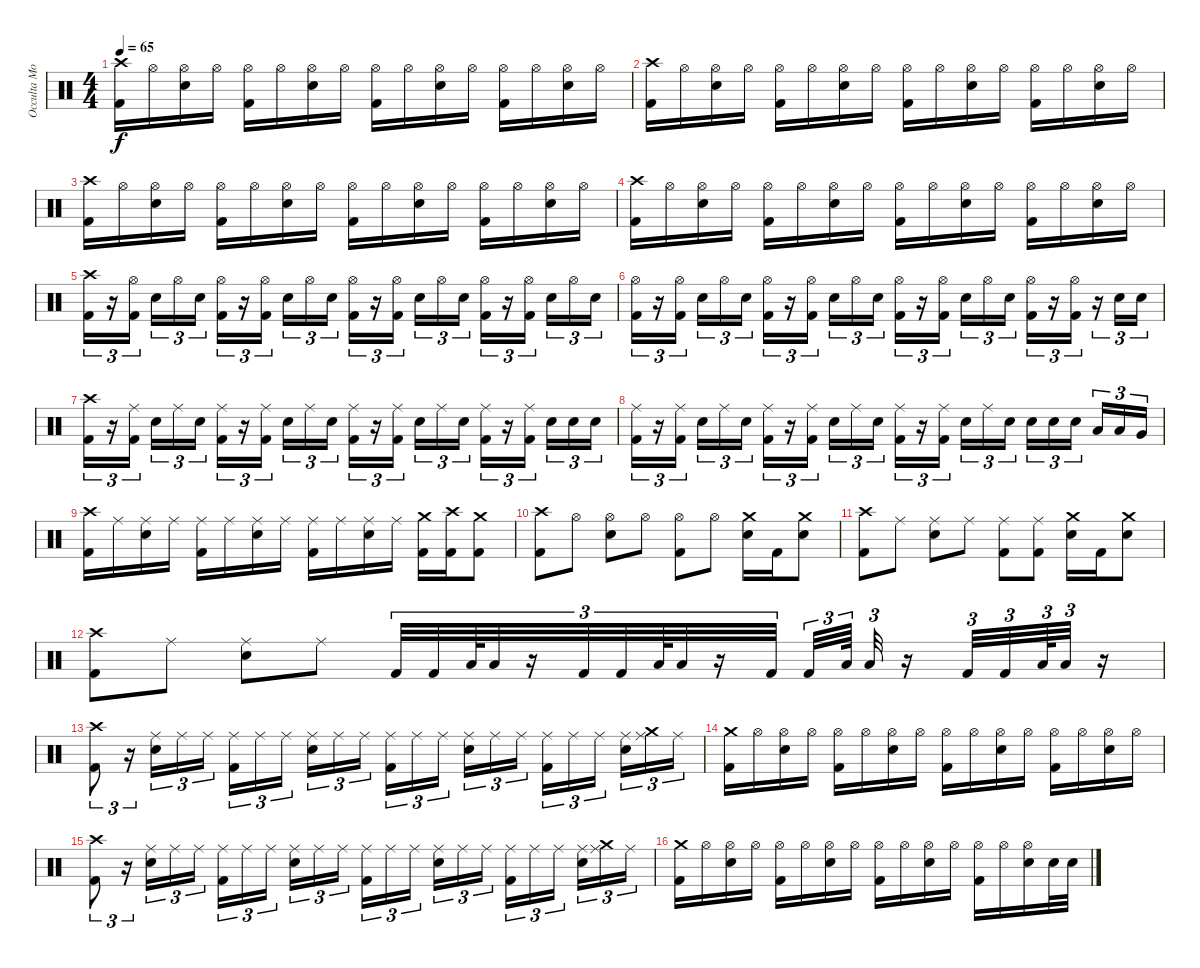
\track ("Occulta Mors" "Occulta Mo") {instrument percussion}
\staff {score}
\articulation defaults
\ts (4 4)
\tempo 65
\clef neutral
\ks c
("Crash high (hit)" "Kick (hit) 2").16{dy f} "Hi-Hat (open)".16 ("Hi-Hat (open)" "Snare (hit) 2").16 "Hi-Hat (open)".16 ("Hi-Hat (open)" "Kick (hit) 2").16 "Hi-Hat (open)".16 ("Hi-Hat (open)" "Snare (hit) 2").16 "Hi-Hat (open)".16 ("Hi-Hat (open)" "Kick (hit) 2").16 "Hi-Hat (open)".16 ("Hi-Hat (open)" "Snare (hit) 2").16 "Hi-Hat (open)".16 ("Hi-Hat (open)" "Kick (hit) 2").16 "Hi-Hat (open)".16 ("Hi-Hat (open)" "Snare (hit) 2").16 "Hi-Hat (open)".16 |
("Crash high (hit)" "Kick (hit) 2").16 "Hi-Hat (open)".16 ("Hi-Hat (open)" "Snare (hit) 2").16 "Hi-Hat (open)".16 ("Hi-Hat (open)" "Kick (hit) 2").16 "Hi-Hat (open)".16 ("Hi-Hat (open)" "Snare (hit) 2").16 "Hi-Hat (open)".16 ("Hi-Hat (open)" "Kick (hit) 2").16 "Hi-Hat (open)".16 ("Hi-Hat (open)" "Snare (hit) 2").16 "Hi-Hat (open)".16 ("Hi-Hat (open)" "Kick (hit) 2").16 "Hi-Hat (open)".16 ("Hi-Hat (open)" "Snare (hit) 2").16 "Hi-Hat (open)".16 |
("Crash high (hit)" "Kick (hit) 2").16 "Hi-Hat (open)".16 ("Hi-Hat (open)" "Snare (hit) 2").16 "Hi-Hat (open)".16 ("Hi-Hat (open)" "Kick (hit) 2").16 "Hi-Hat (open)".16 ("Hi-Hat (open)" "Snare (hit) 2").16 "Hi-Hat (open)".16 ("Hi-Hat (open)" "Kick (hit) 2").16 "Hi-Hat (open)".16 ("Hi-Hat (open)" "Snare (hit) 2").16 "Hi-Hat (open)".16 ("Hi-Hat (open)" "Kick (hit) 2").16 "Hi-Hat (open)".16 ("Hi-Hat (open)" "Snare (hit) 2").16 "Hi-Hat (open)".16 |
("Crash high (hit)" "Kick (hit) 2").16 "Hi-Hat (open)".16 ("Hi-Hat (open)" "Snare (hit) 2").16 "Hi-Hat (open)".16 ("Hi-Hat (open)" "Kick (hit) 2").16 "Hi-Hat (open)".16 ("Hi-Hat (open)" "Snare (hit) 2").16 "Hi-Hat (open)".16 ("Hi-Hat (open)" "Kick (hit) 2").16 "Hi-Hat (open)".16 ("Hi-Hat (open)" "Snare (hit) 2").16 "Hi-Hat (open)".16 ("Hi-Hat (open)" "Kick (hit) 2").16 "Hi-Hat (open)".16 ("Hi-Hat (open)" "Snare (hit) 2").16 "Hi-Hat (open)".16 |
("Crash high (hit)" "Kick (hit) 2").16{tu (3 2)} r.16{tu (3 2)} ("Hi-Hat (open)" "Kick (hit) 2").16{tu (3 2)} "Snare (hit) 2".16{tu (3 2)} "Hi-Hat (open)".16{tu (3 2)} "Snare (hit) 2".16{tu (3 2)} ("Hi-Hat (open)" "Kick (hit) 2").16{tu (3 2)} r.16{tu (3 2)} ("Hi-Hat (open)" "Kick (hit) 2").16{tu (3 2)} "Snare (hit) 2".16{tu (3 2)} "Hi-Hat (open)".16{tu (3 2)} "Snare (hit) 2".16{tu (3 2)} ("Hi-Hat (open)" "Kick (hit) 2").16{tu (3 2)} r.16{tu (3 2)} ("Hi-Hat (open)" "Kick (hit) 2").16{tu (3 2)} "Snare (hit) 2".16{tu (3 2)} "Hi-Hat (open)".16{tu (3 2)} "Snare (hit) 2".16{tu (3 2)} ("Hi-Hat (open)" "Kick (hit) 2").16{tu (3 2)} r.16{tu (3 2)} ("Hi-Hat (open)" "Kick (hit) 2").16{tu (3 2)} "Snare (hit) 2".16{tu (3 2)} "Hi-Hat (open)".16{tu (3 2)} "Snare (hit) 2".16{tu (3 2)} |
("Hi-Hat (open)" "Kick (hit) 2").16{tu (3 2)} r.16{tu (3 2)} ("Hi-Hat (open)" "Kick (hit) 2").16{tu (3 2)} "Snare (hit) 2".16{tu (3 2)} "Hi-Hat (open)".16{tu (3 2)} "Snare (hit) 2".16{tu (3 2)} ("Hi-Hat (open)" "Kick (hit) 2").16{tu (3 2)} r.16{tu (3 2)} ("Hi-Hat (open)" "Kick (hit) 2").16{tu (3 2)} "Snare (hit) 2".16{tu (3 2)} "Hi-Hat (open)".16{tu (3 2)} "Snare (hit) 2".16{tu (3 2)} ("Hi-Hat (open)" "Kick (hit) 2").16{tu (3 2)} r.16{tu (3 2)} ("Hi-Hat (open)" "Kick (hit) 2").16{tu (3 2)} "Snare (hit) 2".16{tu (3 2)} "Hi-Hat (open)".16{tu (3 2)} "Snare (hit) 2".16{tu (3 2)} ("Hi-Hat (open)" "Kick (hit) 2").16{tu (3 2)} r.16{tu (3 2)} ("Hi-Hat (open)" "Kick (hit) 2").16{tu (3 2)} r.16{tu (3 2)} "Snare (hit) 2".16{tu (3 2)} "Snare (hit) 2".16{tu (3 2)} |
("Crash high (hit)" "Kick (hit) 2").16{tu (3 2)} r.16{tu (3 2)} ("Ride (middle)" "Kick (hit) 2").16{tu (3 2)} "Snare (hit) 2".16{tu (3 2)} "Ride (middle)".16{tu (3 2)} "Snare (hit) 2".16{tu (3 2)} ("Ride (middle)" "Kick (hit) 2").16{tu (3 2)} r.16{tu (3 2)} ("Ride (middle)" "Kick (hit) 2").16{tu (3 2)} "Snare (hit) 2".16{tu (3 2)} "Ride (middle)".16{tu (3 2)} "Snare (hit) 2".16{tu (3 2)} ("Ride (middle)" "Kick (hit) 2").16{tu (3 2)} r.16{tu (3 2)} ("Ride (middle)" "Kick (hit) 2").16{tu (3 2)} "Snare (hit) 2".16{tu (3 2)} "Ride (middle)".16{tu (3 2)} "Snare (hit) 2".16{tu (3 2)} ("Ride (middle)" "Kick (hit) 2").16{tu (3 2)} r.16{tu (3 2)} ("Ride (middle)" "Kick (hit) 2").16{tu (3 2)} "Snare (hit) 2".16{tu (3 2)} "Snare (hit) 2".16{tu (3 2)} "Snare (hit) 2".16{tu (3 2)} |
("Ride (middle)" "Kick (hit) 2").16{tu (3 2)} r.16{tu (3 2)} ("Ride (middle)" "Kick (hit) 2").16{tu (3 2)} "Snare (hit) 2".16{tu (3 2)} "Ride (middle)".16{tu (3 2)} "Snare (hit) 2".16{tu (3 2)} ("Ride (middle)" "Kick (hit) 2").16{tu (3 2)} r.16{tu (3 2)} ("Ride (middle)" "Kick (hit) 2").16{tu (3 2)} "Snare (hit) 2".16{tu (3 2)} "Ride (middle)".16{tu (3 2)} "Snare (hit) 2".16{tu (3 2)} ("Ride (middle)" "Kick (hit) 2").16{tu (3 2)} r.16{tu (3 2)} ("Ride (middle)" "Kick (hit) 2").16{tu (3 2)} "Snare (hit) 2".16{tu (3 2)} "Ride (middle)".16{tu (3 2)} "Snare (hit) 2".16{tu (3 2)} "Snare (hit) 2".16{tu (3 2)} "Snare (hit) 2".16{tu (3 2)} "Snare (hit) 2".16{tu (3 2)} "Low Tom (hit)".16{tu (3 2)} "Low Tom (hit)".16{tu (3 2)} "Very Low Tom (hit)".16{tu (3 2)} |
("Crash high (hit)" "Kick (hit) 2").16 "Ride (middle)".16 ("Ride (middle)" "Snare (hit) 2").16 "Ride (middle)".16 ("Ride (middle)" "Kick (hit) 2").16 "Ride (middle)".16 ("Ride (middle)" "Snare (hit) 2").16 "Ride (middle)".16 ("Ride (middle)" "Kick (hit) 2").16 "Ride (middle)".16 ("Ride (middle)" "Snare (hit) 2").16 "Ride (middle)".16 ("Crash medium (hit)" "Kick (hit) 2").16 ("Crash high (hit)" "Kick (hit) 2").16 ("Crash medium (hit)" "Kick (hit) 2").8 |
("Crash high (hit)" "Kick (hit) 2").8 "Hi-Hat (open)".8 ("Hi-Hat (open)" "Snare (hit) 2").8 "Hi-Hat (open)".8 ("Hi-Hat (open)" "Kick (hit) 2").8 "Hi-Hat (open)".8 ("Crash medium (hit)" "Snare (hit) 2").16 "Kick (hit) 2".16 ("Crash medium (hit)" "Snare (hit) 2").8 |
("Crash high (hit)" "Kick (hit) 2").8 "Ride (middle)".8 ("Ride (middle)" "Snare (hit) 2").8 "Ride (middle)".8 ("Ride (middle)" "Kick (hit) 2").8 ("Ride (middle)" "Kick (hit) 2").8 ("Crash medium (hit)" "Snare (hit) 2").16 "Kick (hit) 2".16 ("Crash medium (hit)" "Snare (hit) 2").8 |
("Crash high (hit)" "Kick (hit) 2").8 "Ride (middle)".8 ("Ride (middle)" "Snare (hit) 2").8 "Ride (middle)".8 "Kick (hit) 2".32{tu (3 2)} "Kick (hit) 2".32{tu (3 2)} "Low Tom (hit)".64{tu (3 2)} "Low Tom (hit)".32{tu (3 2)} r.16{tu (3 2)} "Kick (hit) 2".32{tu (3 2)} "Kick (hit) 2".32{tu (3 2)} "Low Tom (hit)".64{tu (3 2)} "Low Tom (hit)".32{tu (3 2)} r.16{tu (3 2)} "Kick (hit) 2".32{tu (3 2)} "Kick (hit) 2".32{tu (3 2)} "Low Tom (hit)".64{tu (3 2)} "Low Tom (hit)".32{tu (3 2)} r.16 "Kick (hit) 2".32{tu (3 2)} "Kick (hit) 2".32{tu (3 2)} "Low Tom (hit)".64{tu (3 2)} "Low Tom (hit)".32{tu (3 2)} r.16 |
("Crash high (hit)" "Kick (hit) 2").8{tu (3 2)} r.16{tu (3 2)} ("Ride (middle)" "Snare (hit) 2").16{tu (3 2)} "Ride (middle)".16{tu (3 2)} "Ride (middle)".16{tu (3 2)} ("Ride (middle)" "Kick (hit) 2").16{tu (3 2)} "Ride (middle)".16{tu (3 2)} "Ride (middle)".16{tu (3 2)} ("Ride (middle)" "Snare (hit) 2").16{tu (3 2)} "Ride (middle)".16{tu (3 2)} "Ride (middle)".16{tu (3 2)} ("Ride (middle)" "Kick (hit) 2").16{tu (3 2)} "Ride (middle)".16{tu (3 2)} "Ride (middle)".16{tu (3 2)} ("Ride (middle)" "Snare (hit) 2").16{tu (3 2)} "Ride (middle)".16{tu (3 2)} "Ride (middle)".16{tu (3 2)} ("Ride (middle)" "Kick (hit) 2").16{tu (3 2)} "Ride (middle)".16{tu (3 2)} "Ride (middle)".16{tu (3 2)} ("Ride (middle)" "Snare (hit) 2").16{tu (3 2)} ("Crash medium (hit)" "Ride (middle)").16{tu (3 2)} "Ride (middle)".16{tu (3 2)} |
("Crash medium (hit)" "Kick (hit) 2").16 "Hi-Hat (open)".16 ("Hi-Hat (open)" "Snare (hit) 2").16 "Hi-Hat (open)".16 ("Hi-Hat (open)" "Kick (hit) 2").16 "Hi-Hat (open)".16 ("Hi-Hat (open)" "Snare (hit) 2").16 "Hi-Hat (open)".16 ("Hi-Hat (open)" "Kick (hit) 2").16 "Hi-Hat (open)".16 ("Hi-Hat (open)" "Snare (hit) 2").16 "Hi-Hat (open)".16 ("Hi-Hat (open)" "Kick (hit) 2").16 "Hi-Hat (open)".16 ("Hi-Hat (open)" "Snare (hit) 2").16 "Hi-Hat (open)".16 |
("Crash high (hit)" "Kick (hit) 2").8{tu (3 2)} r.16{tu (3 2)} ("Ride (middle)" "Snare (hit) 2").16{tu (3 2)} "Ride (middle)".16{tu (3 2)} "Ride (middle)".16{tu (3 2)} ("Ride (middle)" "Kick (hit) 2").16{tu (3 2)} "Ride (middle)".16{tu (3 2)} "Ride (middle)".16{tu (3 2)} ("Ride (middle)" "Snare (hit) 2").16{tu (3 2)} "Ride (middle)".16{tu (3 2)} "Ride (middle)".16{tu (3 2)} ("Ride (middle)" "Kick (hit) 2").16{tu (3 2)} "Ride (middle)".16{tu (3 2)} "Ride (middle)".16{tu (3 2)} ("Ride (middle)" "Snare (hit) 2").16{tu (3 2)} "Ride (middle)".16{tu (3 2)} "Ride (middle)".16{tu (3 2)} ("Ride (middle)" "Kick (hit) 2").16{tu (3 2)} "Ride (middle)".16{tu (3 2)} "Ride (middle)".16{tu (3 2)} ("Ride (middle)" "Snare (hit) 2").16{tu (3 2)} ("Crash medium (hit)" "Ride (middle)").16{tu (3 2)} "Ride (middle)".16{tu (3 2)} |
("Crash medium (hit)" "Kick (hit) 2").16 "Hi-Hat (open)".16 ("Hi-Hat (open)" "Snare (hit) 2").16 "Hi-Hat (open)".16 ("Hi-Hat (open)" "Kick (hit) 2").16 "Hi-Hat (open)".16 ("Hi-Hat (open)" "Snare (hit) 2").16 "Hi-Hat (open)".16 ("Hi-Hat (open)" "Kick (hit) 2").16 "Hi-Hat (open)".16 ("Hi-Hat (open)" "Snare (hit) 2").16 "Hi-Hat (open)".16 ("Hi-Hat (open)" "Kick (hit) 2").16 "Hi-Hat (open)".16 ("Hi-Hat (open)" "Snare (hit) 2").16 "Snare (hit) 2".32 "Snare (hit) 2".32
